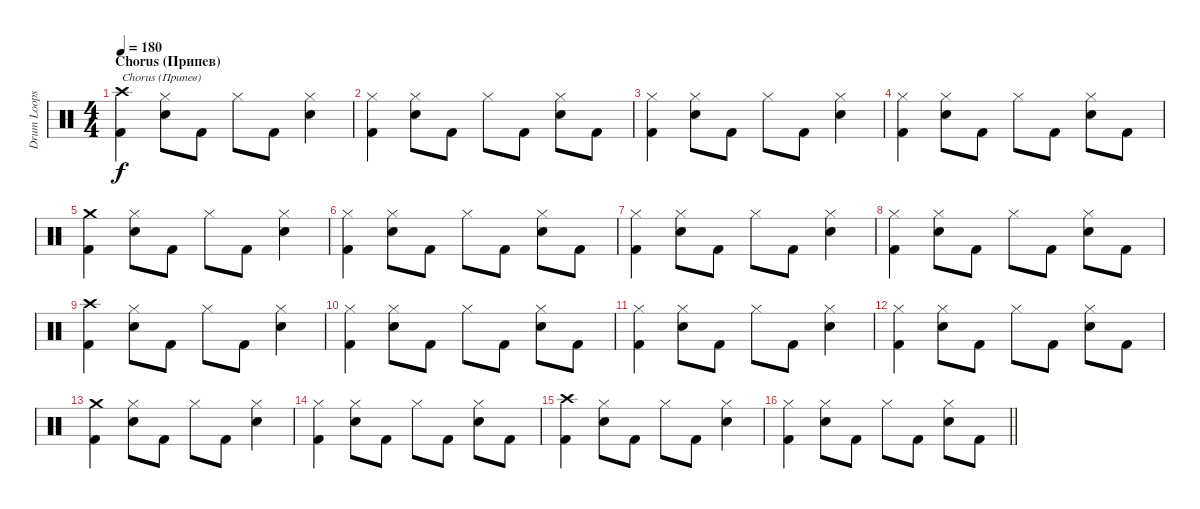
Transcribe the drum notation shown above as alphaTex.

\track ("Drum Loops (Дурачок)" "Drum Loops") {instrument percussion}
\staff {score}
\articulation defaults
\ts (4 4)
\section ("" "Chorus (Припев)")
\tempo 180
\clef neutral
\ks c
("Kick (hit) 2" "Crash high (hit)").4{txt "Chorus (Припев)" dy f} ("Snare (hit) 2" "Hi-Hat (closed)").8 "Kick (hit) 2".8 "Hi-Hat (closed)".8 "Kick (hit) 2".8 ("Snare (hit) 2" "Hi-Hat (closed)").4 |
("Kick (hit) 2" "Hi-Hat (closed)").4 ("Snare (hit) 2" "Hi-Hat (closed)").8 "Kick (hit) 2".8 "Hi-Hat (closed)".8 "Kick (hit) 2".8 ("Snare (hit) 2" "Hi-Hat (closed)").8 "Kick (hit) 2".8 |
("Kick (hit) 2" "Hi-Hat (closed)").4 ("Snare (hit) 2" "Hi-Hat (closed)").8 "Kick (hit) 2".8 "Hi-Hat (closed)".8 "Kick (hit) 2".8 ("Snare (hit) 2" "Hi-Hat (closed)").4 |
("Kick (hit) 2" "Hi-Hat (closed)").4 ("Snare (hit) 2" "Hi-Hat (closed)").8 "Kick (hit) 2".8 "Hi-Hat (closed)".8 "Kick (hit) 2".8 ("Snare (hit) 2" "Hi-Hat (closed)").8 "Kick (hit) 2".8 |
("Kick (hit) 2" "Crash medium (hit)").4 ("Snare (hit) 2" "Hi-Hat (closed)").8 "Kick (hit) 2".8 "Hi-Hat (closed)".8 "Kick (hit) 2".8 ("Snare (hit) 2" "Hi-Hat (closed)").4 |
("Kick (hit) 2" "Hi-Hat (closed)").4 ("Snare (hit) 2" "Hi-Hat (closed)").8 "Kick (hit) 2".8 "Hi-Hat (closed)".8 "Kick (hit) 2".8 ("Snare (hit) 2" "Hi-Hat (closed)").8 "Kick (hit) 2".8 |
("Kick (hit) 2" "Hi-Hat (closed)").4 ("Snare (hit) 2" "Hi-Hat (closed)").8 "Kick (hit) 2".8 "Hi-Hat (closed)".8 "Kick (hit) 2".8 ("Snare (hit) 2" "Hi-Hat (closed)").4 |
("Kick (hit) 2" "Hi-Hat (closed)").4 ("Snare (hit) 2" "Hi-Hat (closed)").8 "Kick (hit) 2".8 "Hi-Hat (closed)".8 "Kick (hit) 2".8 ("Snare (hit) 2" "Hi-Hat (closed)").8 "Kick (hit) 2".8 |
("Kick (hit) 2" "Crash high (hit)").4 ("Snare (hit) 2" "Hi-Hat (closed)").8 "Kick (hit) 2".8 "Hi-Hat (closed)".8 "Kick (hit) 2".8 ("Snare (hit) 2" "Hi-Hat (closed)").4 |
("Kick (hit) 2" "Hi-Hat (closed)").4 ("Snare (hit) 2" "Hi-Hat (closed)").8 "Kick (hit) 2".8 "Hi-Hat (closed)".8 "Kick (hit) 2".8 ("Snare (hit) 2" "Hi-Hat (closed)").8 "Kick (hit) 2".8 |
("Kick (hit) 2" "Hi-Hat (closed)").4 ("Snare (hit) 2" "Hi-Hat (closed)").8 "Kick (hit) 2".8 "Hi-Hat (closed)".8 "Kick (hit) 2".8 ("Snare (hit) 2" "Hi-Hat (closed)").4 |
("Kick (hit) 2" "Hi-Hat (closed)").4 ("Snare (hit) 2" "Hi-Hat (closed)").8 "Kick (hit) 2".8 "Hi-Hat (closed)".8 "Kick (hit) 2".8 ("Snare (hit) 2" "Hi-Hat (closed)").8 "Kick (hit) 2".8 |
("Kick (hit) 2" "Crash medium (hit)").4 ("Snare (hit) 2" "Hi-Hat (closed)").8 "Kick (hit) 2".8 "Hi-Hat (closed)".8 "Kick (hit) 2".8 ("Snare (hit) 2" "Hi-Hat (closed)").4 |
("Kick (hit) 2" "Hi-Hat (closed)").4 ("Snare (hit) 2" "Hi-Hat (closed)").8 "Kick (hit) 2".8 "Hi-Hat (closed)".8 "Kick (hit) 2".8 ("Snare (hit) 2" "Hi-Hat (closed)").8 "Kick (hit) 2".8 |
("Kick (hit) 2" "Crash high (hit)").4 ("Snare (hit) 2" "Hi-Hat (closed)").8 "Kick (hit) 2".8 "Hi-Hat (closed)".8 "Kick (hit) 2".8 ("Snare (hit) 2" "Hi-Hat (closed)").4 |
\barLineRight lightlight
("Kick (hit) 2" "Hi-Hat (closed)").4 ("Snare (hit) 2" "Hi-Hat (closed)").8 "Kick (hit) 2".8 "Hi-Hat (closed)".8 "Kick (hit) 2".8 ("Snare (hit) 2" "Hi-Hat (closed)").8 "Kick (hit) 2".8
